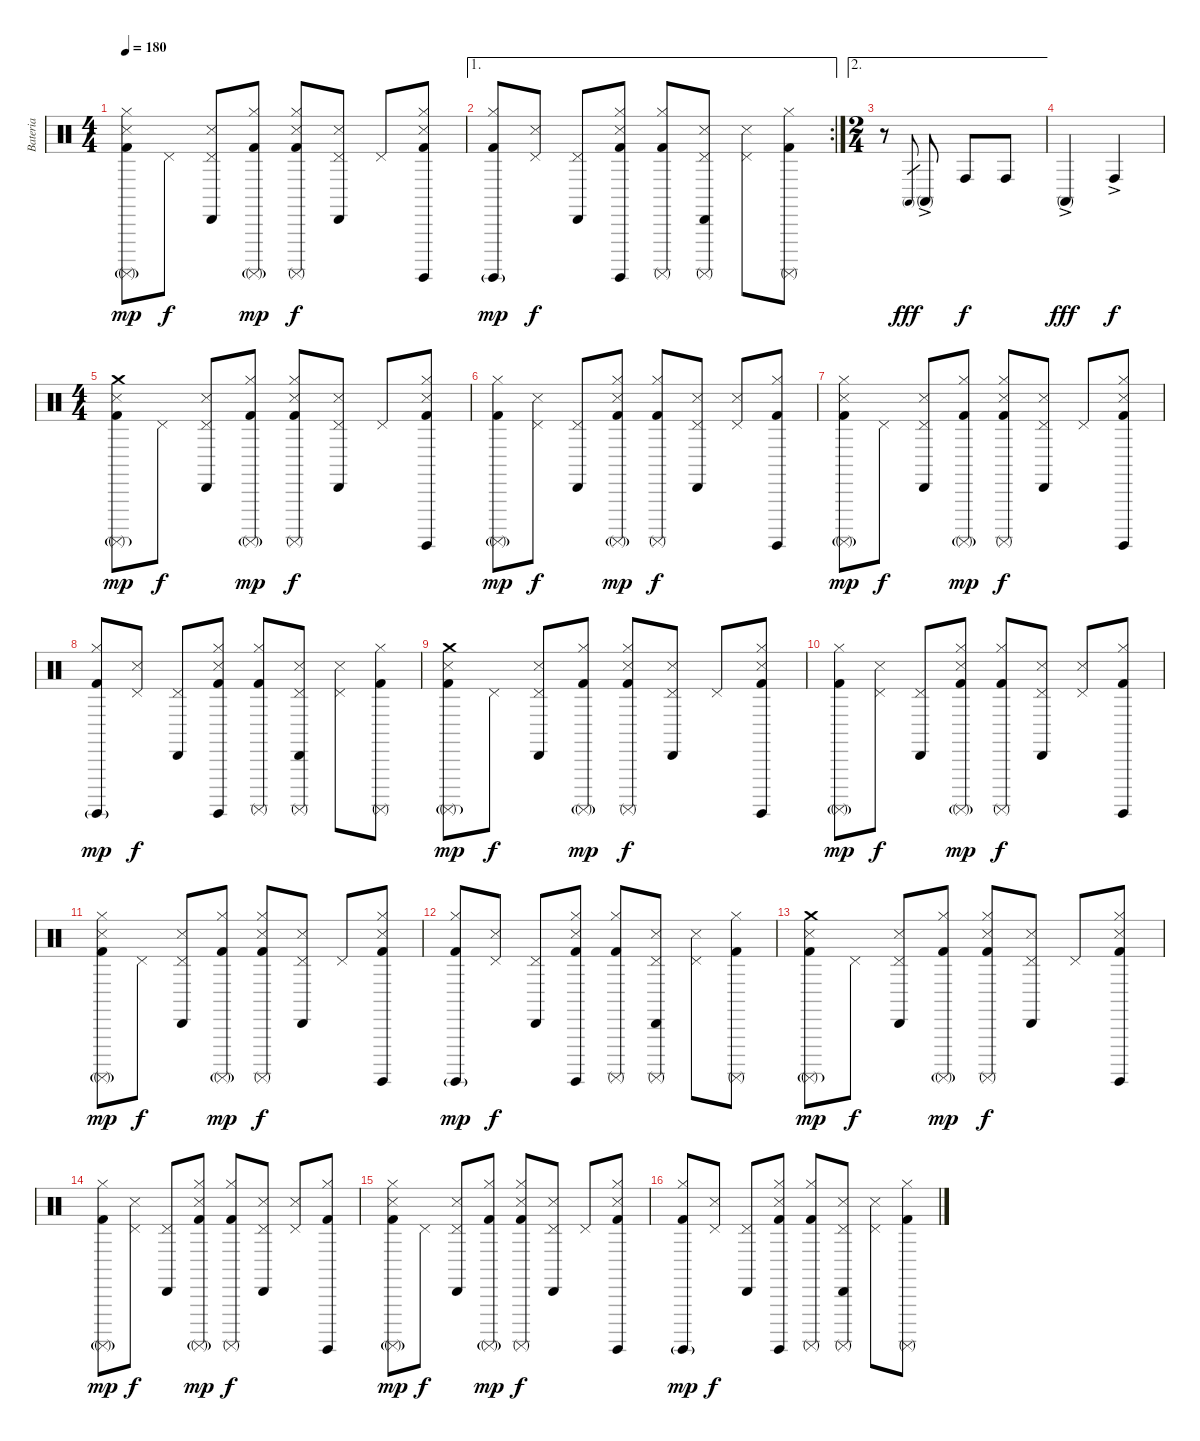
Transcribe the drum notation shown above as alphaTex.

\track ("Bateria" "Bateria") {instrument percussion}
\staff {score}
\articulation defaults
\ts (4 4)
\tempo 180
\clef neutral
\ks c
("Hi-Hat (closed)" "Snare (side stick) 3" "Surdo (mute)"{g} "Kick (hit) 2").8{dy mp} "Pedal Hi-Hat (hit)".8{dy f} ("Pedal Hi-Hat (hit)" "Cabasa (hit)" "Snare (side stick) 3").8 ("Hi-Hat (closed)" "Surdo (mute)"{g} "Kick (hit) 2").8{dy mp} ("Hi-Hat (closed)" "Snare (side stick) 3" "Surdo (mute)" "Kick (hit) 2").8{dy f} ("Pedal Hi-Hat (hit)" "Cabasa (hit)" "Snare (side stick) 3").8 "Pedal Hi-Hat (hit)".8 ("Hi-Hat (closed)" "Snare (side stick) 3" "Surdo (hit)" "Kick (hit) 2").8 |
\ae 1
\rc 2
("Hi-Hat (closed)" "Surdo (hit)"{g} "Kick (hit) 2").8{dy mp} ("Pedal Hi-Hat (hit)" "Snare (side stick) 3").8{dy f} ("Pedal Hi-Hat (hit)" "Cabasa (hit)").8 ("Hi-Hat (closed)" "Snare (side stick) 3" "Surdo (hit)" "Kick (hit) 2").8 ("Hi-Hat (closed)" "Surdo (mute)" "Kick (hit) 2").8 ("Pedal Hi-Hat (hit)" "Cabasa (hit)" "Snare (side stick) 3" "Surdo (mute)").8 ("Pedal Hi-Hat (hit)" "Snare (side stick) 3").8 ("Hi-Hat (closed)" "Surdo (mute)" "Kick (hit) 2").8 |
\ae 2
\ts (2 4)
r.8{volume 16} "Conga high (mute)".8{gr dy fff} "Conga high (mute)"{ac}.8 "Conga high (hit)".8{dy f} "Conga high (hit)".8 |
"Conga high (mute)"{ac}.4{dy fff} "Conga high (hit)"{ac}.4{dy f} |
\ts (4 4)
("Crash medium (hit)" "Snare (side stick) 3" "Surdo (mute)"{g} "Kick (hit) 2").8{dy mp volume 12} "Pedal Hi-Hat (hit)".8{dy f} ("Pedal Hi-Hat (hit)" "Cabasa (hit)" "Snare (side stick) 3").8 ("Hi-Hat (closed)" "Surdo (mute)"{g} "Kick (hit) 2").8{dy mp} ("Hi-Hat (closed)" "Snare (side stick) 3" "Surdo (mute)" "Kick (hit) 2").8{dy f} ("Pedal Hi-Hat (hit)" "Cabasa (hit)" "Snare (side stick) 3").8 "Pedal Hi-Hat (hit)".8 ("Hi-Hat (closed)" "Snare (side stick) 3" "Surdo (hit)" "Kick (hit) 2").8 |
("Hi-Hat (closed)" "Surdo (mute)"{g} "Kick (hit) 2").8{dy mp} ("Pedal Hi-Hat (hit)" "Snare (side stick) 3").8{dy f} ("Pedal Hi-Hat (hit)" "Cabasa (hit)").8 ("Hi-Hat (closed)" "Snare (side stick) 3" "Surdo (mute)"{g} "Kick (hit) 2").8{dy mp} ("Hi-Hat (closed)" "Surdo (mute)" "Kick (hit) 2").8{dy f} ("Pedal Hi-Hat (hit)" "Cabasa (hit)" "Snare (side stick) 3").8 ("Pedal Hi-Hat (hit)" "Snare (side stick) 3").8 ("Hi-Hat (closed)" "Surdo (hit)" "Kick (hit) 2").8 |
("Hi-Hat (closed)" "Snare (side stick) 3" "Surdo (mute)"{g} "Kick (hit) 2").8{dy mp} "Pedal Hi-Hat (hit)".8{dy f} ("Pedal Hi-Hat (hit)" "Cabasa (hit)" "Snare (side stick) 3").8 ("Hi-Hat (closed)" "Surdo (mute)"{g} "Kick (hit) 2").8{dy mp} ("Hi-Hat (closed)" "Snare (side stick) 3" "Surdo (mute)" "Kick (hit) 2").8{dy f} ("Pedal Hi-Hat (hit)" "Cabasa (hit)" "Snare (side stick) 3").8 "Pedal Hi-Hat (hit)".8 ("Hi-Hat (closed)" "Snare (side stick) 3" "Surdo (hit)" "Kick (hit) 2").8 |
("Hi-Hat (closed)" "Surdo (hit)"{g} "Kick (hit) 2").8{dy mp} ("Pedal Hi-Hat (hit)" "Snare (side stick) 3").8{dy f} ("Pedal Hi-Hat (hit)" "Cabasa (hit)").8 ("Hi-Hat (closed)" "Snare (side stick) 3" "Surdo (hit)" "Kick (hit) 2").8 ("Hi-Hat (closed)" "Surdo (mute)" "Kick (hit) 2").8 ("Pedal Hi-Hat (hit)" "Cabasa (hit)" "Snare (side stick) 3" "Surdo (mute)").8 ("Pedal Hi-Hat (hit)" "Snare (side stick) 3").8 ("Hi-Hat (closed)" "Surdo (mute)" "Kick (hit) 2").8 |
("Crash medium (hit)" "Snare (side stick) 3" "Surdo (mute)"{g} "Kick (hit) 2").8{dy mp} "Pedal Hi-Hat (hit)".8{dy f} ("Pedal Hi-Hat (hit)" "Cabasa (hit)" "Snare (side stick) 3").8 ("Hi-Hat (closed)" "Surdo (mute)"{g} "Kick (hit) 2").8{dy mp} ("Hi-Hat (closed)" "Snare (side stick) 3" "Surdo (mute)" "Kick (hit) 2").8{dy f} ("Pedal Hi-Hat (hit)" "Cabasa (hit)" "Snare (side stick) 3").8 "Pedal Hi-Hat (hit)".8 ("Hi-Hat (closed)" "Snare (side stick) 3" "Surdo (hit)" "Kick (hit) 2").8 |
("Hi-Hat (closed)" "Surdo (mute)"{g} "Kick (hit) 2").8{dy mp} ("Pedal Hi-Hat (hit)" "Snare (side stick) 3").8{dy f} ("Pedal Hi-Hat (hit)" "Cabasa (hit)").8 ("Hi-Hat (closed)" "Snare (side stick) 3" "Surdo (mute)"{g} "Kick (hit) 2").8{dy mp} ("Hi-Hat (closed)" "Surdo (mute)" "Kick (hit) 2").8{dy f} ("Pedal Hi-Hat (hit)" "Cabasa (hit)" "Snare (side stick) 3").8 ("Pedal Hi-Hat (hit)" "Snare (side stick) 3").8 ("Hi-Hat (closed)" "Surdo (hit)" "Kick (hit) 2").8 |
("Hi-Hat (closed)" "Snare (side stick) 3" "Surdo (mute)"{g} "Kick (hit) 2").8{dy mp} "Pedal Hi-Hat (hit)".8{dy f} ("Pedal Hi-Hat (hit)" "Cabasa (hit)" "Snare (side stick) 3").8 ("Hi-Hat (closed)" "Surdo (mute)"{g} "Kick (hit) 2").8{dy mp} ("Hi-Hat (closed)" "Snare (side stick) 3" "Surdo (mute)" "Kick (hit) 2").8{dy f} ("Pedal Hi-Hat (hit)" "Cabasa (hit)" "Snare (side stick) 3").8 "Pedal Hi-Hat (hit)".8 ("Hi-Hat (closed)" "Snare (side stick) 3" "Surdo (hit)" "Kick (hit) 2").8 |
("Hi-Hat (closed)" "Surdo (hit)"{g} "Kick (hit) 2").8{dy mp} ("Pedal Hi-Hat (hit)" "Snare (side stick) 3").8{dy f} ("Pedal Hi-Hat (hit)" "Cabasa (hit)").8 ("Hi-Hat (closed)" "Snare (side stick) 3" "Surdo (hit)" "Kick (hit) 2").8 ("Hi-Hat (closed)" "Surdo (mute)" "Kick (hit) 2").8 ("Pedal Hi-Hat (hit)" "Cabasa (hit)" "Snare (side stick) 3" "Surdo (mute)").8 ("Pedal Hi-Hat (hit)" "Snare (side stick) 3").8 ("Hi-Hat (closed)" "Surdo (mute)" "Kick (hit) 2").8 |
("Crash medium (hit)" "Snare (side stick) 3" "Surdo (mute)"{g} "Kick (hit) 2").8{dy mp} "Pedal Hi-Hat (hit)".8{dy f} ("Pedal Hi-Hat (hit)" "Cabasa (hit)" "Snare (side stick) 3").8 ("Hi-Hat (closed)" "Surdo (mute)"{g} "Kick (hit) 2").8{dy mp} ("Hi-Hat (closed)" "Snare (side stick) 3" "Surdo (mute)" "Kick (hit) 2").8{dy f} ("Pedal Hi-Hat (hit)" "Cabasa (hit)" "Snare (side stick) 3").8 "Pedal Hi-Hat (hit)".8 ("Hi-Hat (closed)" "Snare (side stick) 3" "Surdo (hit)" "Kick (hit) 2").8 |
("Hi-Hat (closed)" "Surdo (mute)"{g} "Kick (hit) 2").8{dy mp} ("Pedal Hi-Hat (hit)" "Snare (side stick) 3").8{dy f} ("Pedal Hi-Hat (hit)" "Cabasa (hit)").8 ("Hi-Hat (closed)" "Snare (side stick) 3" "Surdo (mute)"{g} "Kick (hit) 2").8{dy mp} ("Hi-Hat (closed)" "Surdo (mute)" "Kick (hit) 2").8{dy f} ("Pedal Hi-Hat (hit)" "Cabasa (hit)" "Snare (side stick) 3").8 ("Pedal Hi-Hat (hit)" "Snare (side stick) 3").8 ("Hi-Hat (closed)" "Surdo (hit)" "Kick (hit) 2").8 |
("Hi-Hat (closed)" "Snare (side stick) 3" "Surdo (mute)"{g} "Kick (hit) 2").8{dy mp} "Pedal Hi-Hat (hit)".8{dy f} ("Pedal Hi-Hat (hit)" "Cabasa (hit)" "Snare (side stick) 3").8 ("Hi-Hat (closed)" "Surdo (mute)"{g} "Kick (hit) 2").8{dy mp} ("Hi-Hat (closed)" "Snare (side stick) 3" "Surdo (mute)" "Kick (hit) 2").8{dy f} ("Pedal Hi-Hat (hit)" "Cabasa (hit)" "Snare (side stick) 3").8 "Pedal Hi-Hat (hit)".8 ("Hi-Hat (closed)" "Snare (side stick) 3" "Surdo (hit)" "Kick (hit) 2").8 |
("Hi-Hat (closed)" "Surdo (hit)"{g} "Kick (hit) 2").8{dy mp} ("Pedal Hi-Hat (hit)" "Snare (side stick) 3").8{dy f} ("Pedal Hi-Hat (hit)" "Cabasa (hit)").8 ("Hi-Hat (closed)" "Snare (side stick) 3" "Surdo (hit)" "Kick (hit) 2").8 ("Hi-Hat (closed)" "Surdo (mute)" "Kick (hit) 2").8 ("Pedal Hi-Hat (hit)" "Cabasa (hit)" "Snare (side stick) 3" "Surdo (mute)").8 ("Pedal Hi-Hat (hit)" "Snare (side stick) 3").8 ("Hi-Hat (closed)" "Surdo (mute)" "Kick (hit) 2").8
